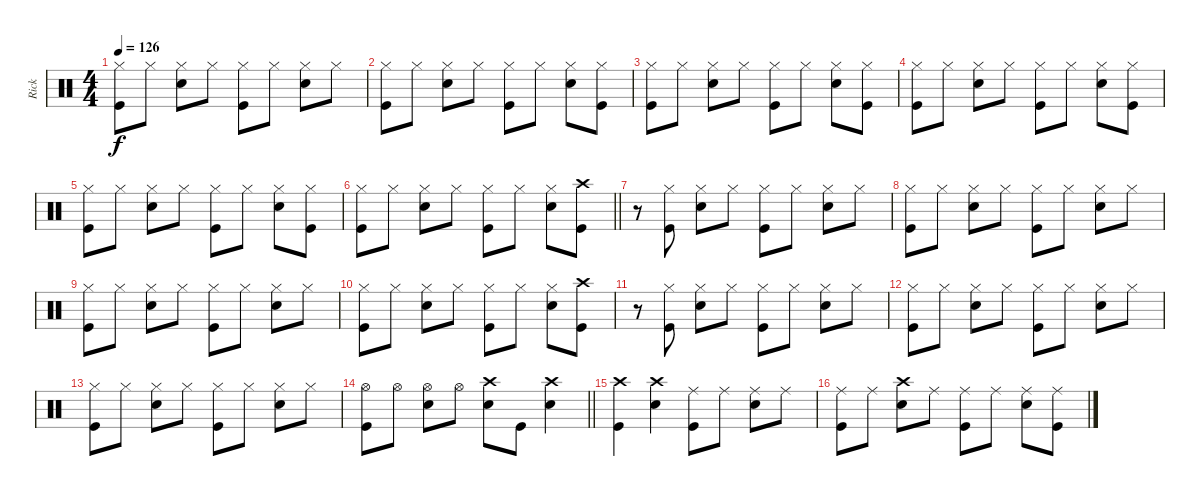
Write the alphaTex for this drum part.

\track ("Rick" "Rick") {instrument percussion}
\staff {score}
\articulation defaults
\ts (4 4)
\tempo 126
\clef neutral
\ks aminor
("Hi-Hat (closed)" "Kick (hit)").8{dy f} "Hi-Hat (closed)".8 ("Hi-Hat (closed)" "Snare (hit) 2").8 "Hi-Hat (closed)".8 ("Hi-Hat (closed)" "Kick (hit)").8 "Hi-Hat (closed)".8 ("Hi-Hat (closed)" "Snare (hit) 2").8 "Hi-Hat (closed)".8 |
("Hi-Hat (closed)" "Kick (hit)").8 "Hi-Hat (closed)".8 ("Hi-Hat (closed)" "Snare (hit) 2").8 "Hi-Hat (closed)".8 ("Hi-Hat (closed)" "Kick (hit)").8 "Hi-Hat (closed)".8 ("Hi-Hat (closed)" "Snare (hit) 2").8 ("Hi-Hat (closed)" "Kick (hit)").8 |
("Hi-Hat (closed)" "Kick (hit)").8 "Hi-Hat (closed)".8 ("Hi-Hat (closed)" "Snare (hit) 2").8 "Hi-Hat (closed)".8 ("Hi-Hat (closed)" "Kick (hit)").8 "Hi-Hat (closed)".8 ("Hi-Hat (closed)" "Snare (hit) 2").8 ("Hi-Hat (closed)" "Kick (hit)").8 |
("Hi-Hat (closed)" "Kick (hit)").8 "Hi-Hat (closed)".8 ("Hi-Hat (closed)" "Snare (hit) 2").8 "Hi-Hat (closed)".8 ("Hi-Hat (closed)" "Kick (hit)").8 "Hi-Hat (closed)".8 ("Hi-Hat (closed)" "Snare (hit) 2").8 ("Hi-Hat (closed)" "Kick (hit)").8 |
("Hi-Hat (closed)" "Kick (hit)").8 "Hi-Hat (closed)".8 ("Hi-Hat (closed)" "Snare (hit) 2").8 "Hi-Hat (closed)".8 ("Hi-Hat (closed)" "Kick (hit)").8 "Hi-Hat (closed)".8 ("Hi-Hat (closed)" "Snare (hit) 2").8 ("Hi-Hat (closed)" "Kick (hit)").8 |
\barLineRight lightlight
("Hi-Hat (closed)" "Kick (hit)").8 "Hi-Hat (closed)".8 ("Hi-Hat (closed)" "Snare (hit) 2").8 "Hi-Hat (closed)".8 ("Hi-Hat (closed)" "Kick (hit)").8 "Hi-Hat (closed)".8 ("Hi-Hat (closed)" "Snare (hit) 2").8 ("Crash high (hit)" "Kick (hit)").8 |
r.8 ("Hi-Hat (closed)" "Kick (hit)").8 ("Hi-Hat (closed)" "Snare (hit) 2").8 "Hi-Hat (closed)".8 ("Hi-Hat (closed)" "Kick (hit)").8 "Hi-Hat (closed)".8 ("Hi-Hat (closed)" "Snare (hit) 2").8 "Hi-Hat (closed)".8 |
("Hi-Hat (closed)" "Kick (hit)").8 "Hi-Hat (closed)".8 ("Hi-Hat (closed)" "Snare (hit) 2").8 "Hi-Hat (closed)".8 ("Hi-Hat (closed)" "Kick (hit)").8 "Hi-Hat (closed)".8 ("Hi-Hat (closed)" "Snare (hit) 2").8 "Hi-Hat (closed)".8 |
("Hi-Hat (closed)" "Kick (hit)").8 "Hi-Hat (closed)".8 ("Hi-Hat (closed)" "Snare (hit) 2").8 "Hi-Hat (closed)".8 ("Hi-Hat (closed)" "Kick (hit)").8 "Hi-Hat (closed)".8 ("Hi-Hat (closed)" "Snare (hit) 2").8 "Hi-Hat (closed)".8 |
("Hi-Hat (closed)" "Kick (hit)").8 "Hi-Hat (closed)".8 ("Hi-Hat (closed)" "Snare (hit) 2").8 "Hi-Hat (closed)".8 ("Hi-Hat (closed)" "Kick (hit)").8 "Hi-Hat (closed)".8 ("Hi-Hat (closed)" "Snare (hit) 2").8 ("Crash high (hit)" "Kick (hit)").8 |
r.8 ("Hi-Hat (closed)" "Kick (hit)").8 ("Hi-Hat (closed)" "Snare (hit) 2").8 "Hi-Hat (closed)".8 ("Hi-Hat (closed)" "Kick (hit)").8 "Hi-Hat (closed)".8 ("Hi-Hat (closed)" "Snare (hit) 2").8 "Hi-Hat (closed)".8 |
("Hi-Hat (closed)" "Kick (hit)").8 "Hi-Hat (closed)".8 ("Hi-Hat (closed)" "Snare (hit) 2").8 "Hi-Hat (closed)".8 ("Hi-Hat (closed)" "Kick (hit)").8 "Hi-Hat (closed)".8 ("Hi-Hat (closed)" "Snare (hit) 2").8 "Hi-Hat (closed)".8 |
("Hi-Hat (closed)" "Kick (hit)").8 "Hi-Hat (closed)".8 ("Hi-Hat (closed)" "Snare (hit) 2").8 "Hi-Hat (closed)".8 ("Hi-Hat (closed)" "Kick (hit)").8 "Hi-Hat (closed)".8 ("Hi-Hat (closed)" "Snare (hit) 2").8 "Hi-Hat (closed)".8 |
\barLineRight lightlight
("Hi-Hat (open)" "Kick (hit)").8 "Hi-Hat (open)".8 ("Hi-Hat (open)" "Snare (hit) 2").8 "Hi-Hat (open)".8 ("Crash high (hit)" "Snare (hit) 2").8 "Kick (hit)".8 ("Crash high (hit)" "Snare (hit) 2").4 |
("Crash high (hit)" "Kick (hit)").4 ("Crash high (hit)" "Snare (hit) 2").4 ("Ride (middle)" "Kick (hit)").8 "Ride (middle)".8 ("Ride (middle)" "Snare (hit) 2").8 "Ride (middle)".8 |
("Ride (middle)" "Kick (hit)").8 "Ride (middle)".8 ("Crash high (hit)" "Snare (hit) 2").8 "Ride (middle)".8 ("Ride (middle)" "Kick (hit)").8 "Ride (middle)".8 ("Ride (middle)" "Snare (hit) 2").8 ("Ride (middle)" "Kick (hit)").8
